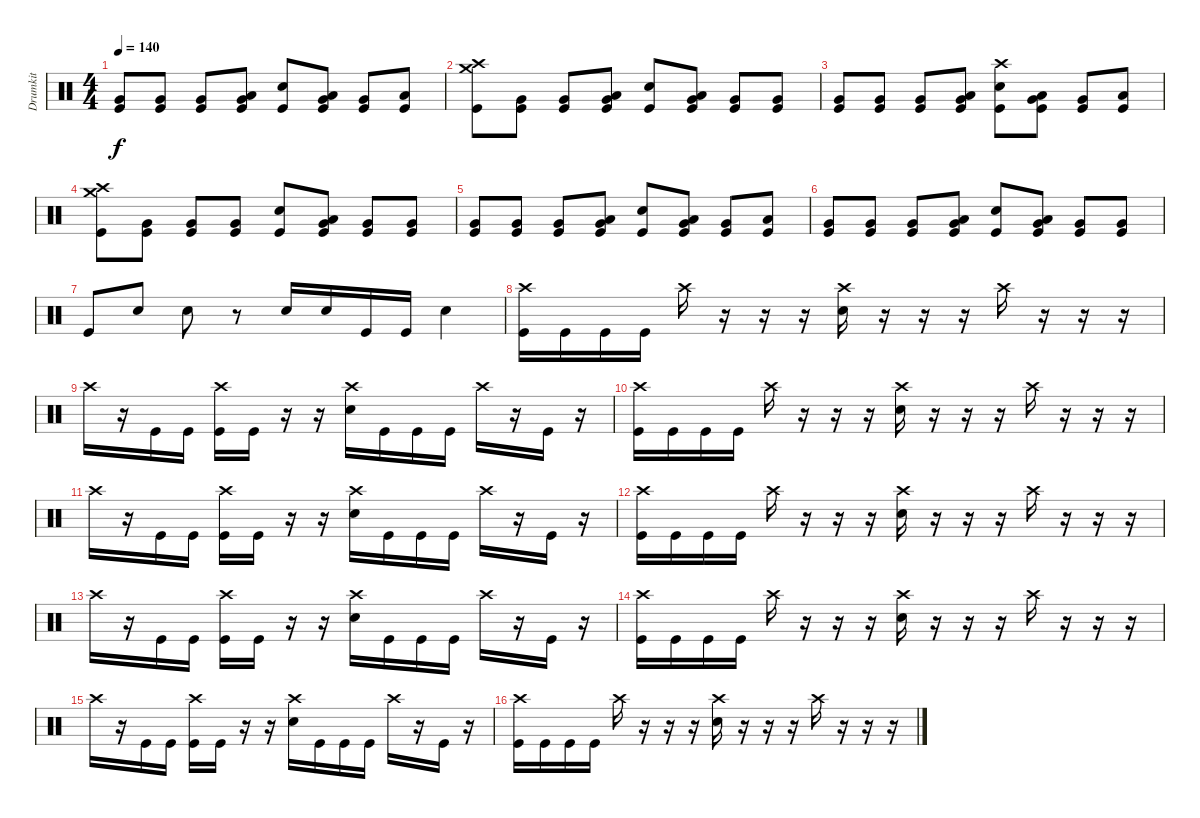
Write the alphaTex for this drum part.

\track ("Drumkit" "Drumkit") {instrument percussion}
\staff {score}
\articulation defaults
\ts (4 4)
\tempo 140
\clef neutral
\ks c
("Very Low Tom (hit)" "Kick (hit)").8{dy f} ("Very Low Tom (hit)" "Kick (hit)").8 ("Very Low Tom (hit)" "Kick (hit)").8 ("Low Tom (hit)" "Very Low Tom (hit)" "Kick (hit)").8 ("Snare (hit) 2" "Kick (hit)").8 ("Low Tom (hit)" "Very Low Tom (hit)" "Kick (hit)").8 ("Very Low Tom (hit)" "Kick (hit)").8 ("Low Tom (hit)" "Kick (hit)").8 |
("Crash medium (hit)" "Crash high (hit)" "Kick (hit)").8 ("Very Low Tom (hit)" "Kick (hit)").8 ("Very Low Tom (hit)" "Kick (hit)").8 ("Low Tom (hit)" "Very Low Tom (hit)" "Kick (hit)").8 ("Snare (hit) 2" "Kick (hit)").8 ("Low Tom (hit)" "Very Low Tom (hit)" "Kick (hit)").8 ("Very Low Tom (hit)" "Kick (hit)").8 ("Very Low Tom (hit)" "Kick (hit)").8 |
("Very Low Tom (hit)" "Kick (hit)").8 ("Very Low Tom (hit)" "Kick (hit)").8 ("Very Low Tom (hit)" "Kick (hit)").8 ("Low Tom (hit)" "Very Low Tom (hit)" "Kick (hit)").8 ("Crash high (hit)" "Snare (hit) 2" "Kick (hit)").8 ("Low Tom (hit)" "Very Low Tom (hit)" "Kick (hit)").8 ("Very Low Tom (hit)" "Kick (hit)").8 ("Low Tom (hit)" "Kick (hit)").8 |
("Crash medium (hit)" "Crash high (hit)" "Kick (hit)").8 ("Very Low Tom (hit)" "Kick (hit)").8 ("Very Low Tom (hit)" "Kick (hit)").8 ("Very Low Tom (hit)" "Kick (hit)").8 ("Snare (hit) 2" "Kick (hit)").8 ("Low Tom (hit)" "Very Low Tom (hit)" "Kick (hit)").8 ("Very Low Tom (hit)" "Kick (hit)").8 ("Very Low Tom (hit)" "Kick (hit)").8 |
("Very Low Tom (hit)" "Kick (hit)").8 ("Very Low Tom (hit)" "Kick (hit)").8 ("Very Low Tom (hit)" "Kick (hit)").8 ("Low Tom (hit)" "Very Low Tom (hit)" "Kick (hit)").8 ("Snare (hit) 2" "Kick (hit)").8 ("Low Tom (hit)" "Very Low Tom (hit)" "Kick (hit)").8 ("Very Low Tom (hit)" "Kick (hit)").8 ("Low Tom (hit)" "Kick (hit)").8 |
("Very Low Tom (hit)" "Kick (hit)").8 ("Very Low Tom (hit)" "Kick (hit)").8 ("Very Low Tom (hit)" "Kick (hit)").8 ("Low Tom (hit)" "Very Low Tom (hit)" "Kick (hit)").8 ("Snare (hit) 2" "Kick (hit)").8 ("Low Tom (hit)" "Very Low Tom (hit)" "Kick (hit)").8 ("Very Low Tom (hit)" "Kick (hit)").8 ("Very Low Tom (hit)" "Kick (hit)").8 |
"Kick (hit)".8 "Snare (hit) 2".8 "Snare (hit) 2".8 r.8 "Snare (hit) 2".16 "Snare (hit) 2".16 "Kick (hit)".16 "Kick (hit)".16 "Snare (hit) 2".4 |
("Crash high (hit)" "Kick (hit)").16 "Kick (hit)".16 "Kick (hit)".16 "Kick (hit)".16 "Crash high (hit)".16 r.16 r.16 r.16 ("Crash high (hit)" "Snare (hit) 2").16 r.16 r.16 r.16 "Crash high (hit)".16 r.16 r.16 r.16 |
"Crash high (hit)".16 r.16 "Kick (hit)".16 "Kick (hit)".16 ("Crash high (hit)" "Kick (hit)").16 "Kick (hit)".16 r.16 r.16 ("Crash high (hit)" "Snare (hit) 2").16 "Kick (hit)".16 "Kick (hit)".16 "Kick (hit)".16 "Crash high (hit)".16 r.16 "Kick (hit)".16 r.16 |
("Crash high (hit)" "Kick (hit)").16 "Kick (hit)".16 "Kick (hit)".16 "Kick (hit)".16 "Crash high (hit)".16 r.16 r.16 r.16 ("Crash high (hit)" "Snare (hit) 2").16 r.16 r.16 r.16 "Crash high (hit)".16 r.16 r.16 r.16 |
"Crash high (hit)".16 r.16 "Kick (hit)".16 "Kick (hit)".16 ("Crash high (hit)" "Kick (hit)").16 "Kick (hit)".16 r.16 r.16 ("Crash high (hit)" "Snare (hit) 2").16 "Kick (hit)".16 "Kick (hit)".16 "Kick (hit)".16 "Crash high (hit)".16 r.16 "Kick (hit)".16 r.16 |
("Crash high (hit)" "Kick (hit)").16 "Kick (hit)".16 "Kick (hit)".16 "Kick (hit)".16 "Crash high (hit)".16 r.16 r.16 r.16 ("Crash high (hit)" "Snare (hit) 2").16 r.16 r.16 r.16 "Crash high (hit)".16 r.16 r.16 r.16 |
"Crash high (hit)".16 r.16 "Kick (hit)".16 "Kick (hit)".16 ("Crash high (hit)" "Kick (hit)").16 "Kick (hit)".16 r.16 r.16 ("Crash high (hit)" "Snare (hit) 2").16 "Kick (hit)".16 "Kick (hit)".16 "Kick (hit)".16 "Crash high (hit)".16 r.16 "Kick (hit)".16 r.16 |
("Crash high (hit)" "Kick (hit)").16 "Kick (hit)".16 "Kick (hit)".16 "Kick (hit)".16 "Crash high (hit)".16 r.16 r.16 r.16 ("Crash high (hit)" "Snare (hit) 2").16 r.16 r.16 r.16 "Crash high (hit)".16 r.16 r.16 r.16 |
"Crash high (hit)".16 r.16 "Kick (hit)".16 "Kick (hit)".16 ("Crash high (hit)" "Kick (hit)").16 "Kick (hit)".16 r.16 r.16 ("Crash high (hit)" "Snare (hit) 2").16 "Kick (hit)".16 "Kick (hit)".16 "Kick (hit)".16 "Crash high (hit)".16 r.16 "Kick (hit)".16 r.16 |
("Crash high (hit)" "Kick (hit)").16 "Kick (hit)".16 "Kick (hit)".16 "Kick (hit)".16 "Crash high (hit)".16 r.16 r.16 r.16 ("Crash high (hit)" "Snare (hit) 2").16 r.16 r.16 r.16 "Crash high (hit)".16 r.16 r.16 r.16
